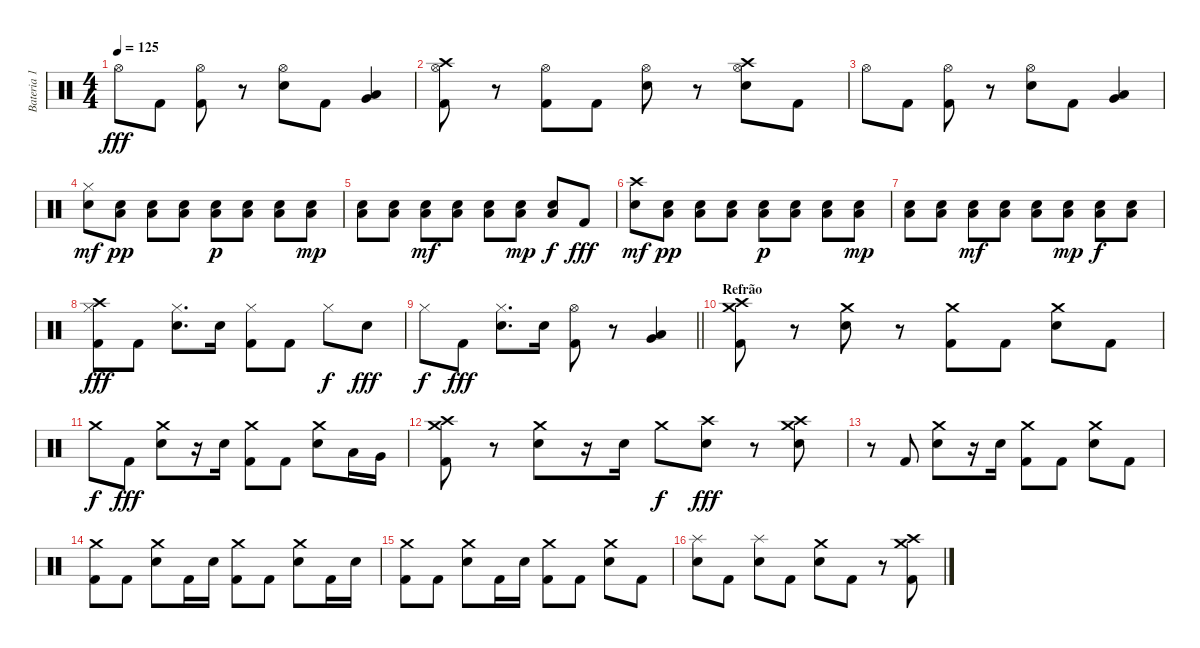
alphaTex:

\track ("Bateria 1" "Bateria 1") {instrument percussion}
\staff {score}
\articulation defaults
\ts (4 4)
\tempo 125
\clef neutral
\ks c "Hi-Hat (open)".8{dy fff} "Kick (hit) 2".8
("Hi-Hat (open)" "Kick (hit) 2").8 r.8 ("Hi-Hat (open)" "Electric Snare (hit)").8 "Kick (hit) 2".8 ("Very Low Tom (hit)" "Low Floor Tom (hit)").4 |
("Crash high (hit)" "Hi-Hat (open)" "Kick (hit) 2").8 r.8 ("Hi-Hat (open)" "Kick (hit) 2").8 "Kick (hit) 2".8 ("Hi-Hat (open)" "Electric Snare (hit)").8 r.8 ("Crash high (hit)" "Hi-Hat (open)" "Electric Snare (hit)").8 "Kick (hit) 2".8 |
"Hi-Hat (open)".8 "Kick (hit) 2".8 ("Hi-Hat (open)" "Kick (hit) 2").8 r.8 ("Hi-Hat (open)" "Electric Snare (hit)").8 "Kick (hit) 2".8 ("Very Low Tom (hit)" "Low Floor Tom (hit)").4 |
("Hi-Hat (closed)" "Electric Snare (hit)").8{dy mf} ("Electric Snare (hit)" "Low Floor Tom (hit)").8{dy pp} ("Electric Snare (hit)" "Low Floor Tom (hit)").8 ("Electric Snare (hit)" "Low Floor Tom (hit)").8 ("Electric Snare (hit)" "Low Floor Tom (hit)").8{dy p} ("Electric Snare (hit)" "Low Floor Tom (hit)").8 ("Electric Snare (hit)" "Low Floor Tom (hit)").8 ("Electric Snare (hit)" "Low Floor Tom (hit)").8{dy mp} |
("Electric Snare (hit)" "Low Floor Tom (hit)").8 ("Electric Snare (hit)" "Low Floor Tom (hit)").8 ("Electric Snare (hit)" "Low Floor Tom (hit)").8{dy mf} ("Electric Snare (hit)" "Low Floor Tom (hit)").8 ("Electric Snare (hit)" "Low Floor Tom (hit)").8 ("Electric Snare (hit)" "Low Floor Tom (hit)").8{dy mp} ("Electric Snare (hit)" "Low Floor Tom (hit)").8{dy f} "Kick (hit) 2".8{dy fff} |
("Crash high (hit)" "Electric Snare (hit)").8{dy mf} ("Electric Snare (hit)" "Low Floor Tom (hit)").8{dy pp} ("Electric Snare (hit)" "Low Floor Tom (hit)").8 ("Electric Snare (hit)" "Low Floor Tom (hit)").8 ("Electric Snare (hit)" "Low Floor Tom (hit)").8{dy p} ("Electric Snare (hit)" "Low Floor Tom (hit)").8 ("Electric Snare (hit)" "Low Floor Tom (hit)").8 ("Electric Snare (hit)" "Low Floor Tom (hit)").8{dy mp} |
("Electric Snare (hit)" "Low Floor Tom (hit)").8 ("Electric Snare (hit)" "Low Floor Tom (hit)").8 ("Electric Snare (hit)" "Low Floor Tom (hit)").8{dy mf} ("Electric Snare (hit)" "Low Floor Tom (hit)").8 ("Electric Snare (hit)" "Low Floor Tom (hit)").8 ("Electric Snare (hit)" "Low Floor Tom (hit)").8{dy mp} ("Electric Snare (hit)" "Low Floor Tom (hit)").8{dy f} ("Electric Snare (hit)" "Low Floor Tom (hit)").8 |
("Crash high (hit)" "Hi-Hat (closed)" "Kick (hit) 2").8{dy fff} "Kick (hit) 2".8 ("Hi-Hat (closed)" "Electric Snare (hit)").8{d} "Electric Snare (hit)".16 ("Hi-Hat (closed)" "Kick (hit) 2").8 "Kick (hit) 2".8 "Hi-Hat (closed)".8{dy f} "Electric Snare (hit)".8{dy fff} |
\barLineRight lightlight "Hi-Hat (closed)".8{dy f} "Kick (hit) 2".8{dy fff}
("Hi-Hat (closed)" "Electric Snare (hit)").8{d} "Electric Snare (hit)".16 ("Hi-Hat (open)" "Kick (hit) 2").8 r.8 ("Very Low Tom (hit)" "Low Floor Tom (hit)").4 |
\section ("" "Refrão")
("Crash high (hit)" "Crash medium (hit)" "Kick (hit) 2").8 r.8 ("Crash medium (hit)" "Electric Snare (hit)").8 r.8 ("Crash medium (hit)" "Kick (hit) 2").8 "Kick (hit) 2".8 ("Crash medium (hit)" "Electric Snare (hit)").8 "Kick (hit) 2".8 |
"Crash medium (hit)".8{dy f} "Kick (hit) 2".8{dy fff} ("Crash medium (hit)" "Electric Snare (hit)").8 r.16 "Electric Snare (hit)".16 ("Crash medium (hit)" "Kick (hit) 2").8 "Kick (hit) 2".8 ("Crash medium (hit)" "Electric Snare (hit)").8 "Low Tom (hit)".16 "Very Low Tom (hit)".16 |
("Crash high (hit)" "Crash medium (hit)" "Kick (hit) 2").8 r.8 ("Crash medium (hit)" "Electric Snare (hit)").8 r.16 "Electric Snare (hit)".16 "Crash medium (hit)".8{dy f} ("Crash high (hit)" "Electric Snare (hit)").8{dy fff} r.8 ("Crash high (hit)" "Crash medium (hit)" "Electric Snare (hit)").8 |
r.8 "Kick (hit) 2".8 ("Crash medium (hit)" "Electric Snare (hit)").8 r.16 "Electric Snare (hit)".16 ("Crash medium (hit)" "Kick (hit) 2").8 "Kick (hit) 2".8 ("Crash medium (hit)" "Electric Snare (hit)").8 "Kick (hit) 2".8 |
("Crash medium (hit)" "Kick (hit) 2").8 "Kick (hit) 2".8 ("Crash medium (hit)" "Electric Snare (hit)").8 "Kick (hit) 2".16 "Electric Snare (hit)".16 ("Crash medium (hit)" "Kick (hit) 2").8 "Kick (hit) 2".8 ("Crash medium (hit)" "Electric Snare (hit)").8 "Kick (hit) 2".16 "Electric Snare (hit)".16 |
("Crash medium (hit)" "Kick (hit) 2").8 "Kick (hit) 2".8 ("Crash medium (hit)" "Electric Snare (hit)").8 "Kick (hit) 2".16 "Electric Snare (hit)".16 ("Crash medium (hit)" "Kick (hit) 2").8 "Kick (hit) 2".8 ("Crash medium (hit)" "Electric Snare (hit)").8 "Kick (hit) 2".8 |
("Splash (hit)" "Electric Snare (hit)").8 "Kick (hit) 2".8 ("Splash (hit)" "Electric Snare (hit)").8 "Kick (hit) 2".8 ("Crash medium (hit)" "Electric Snare (hit)").8 "Kick (hit) 2".8 r.8 ("Crash high (hit)" "Crash medium (hit)" "Kick (hit) 2").8
